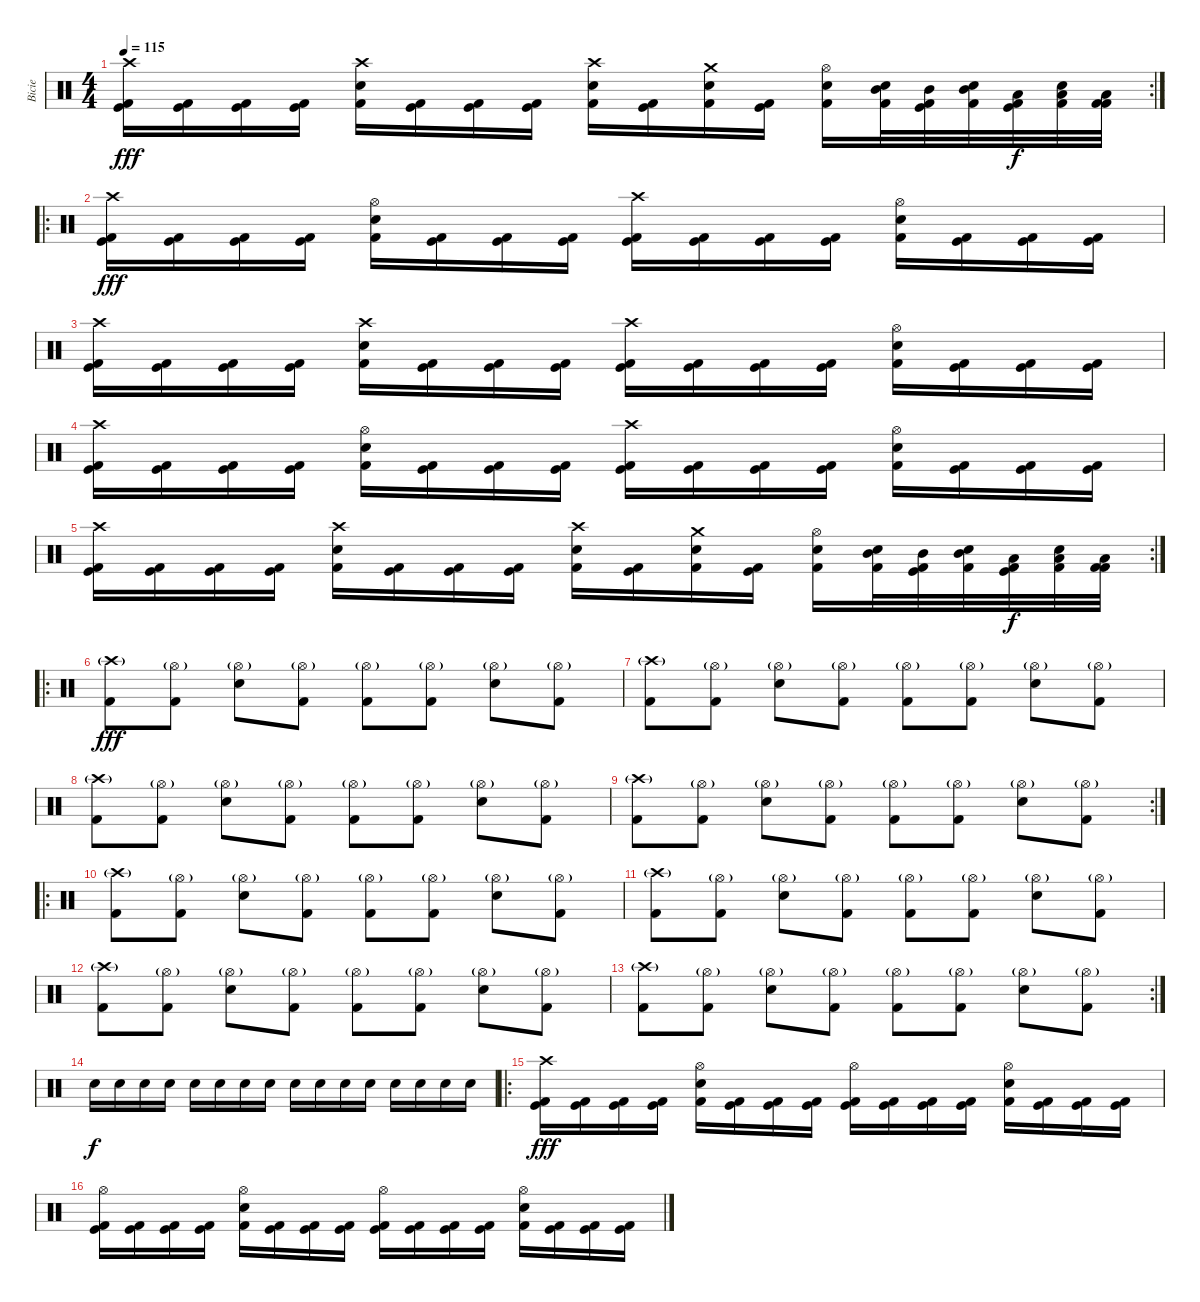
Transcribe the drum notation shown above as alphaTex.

\track ("Bicie" "Bicie") {instrument percussion}
\staff {score}
\articulation defaults
\rc 2
\ts (4 4)
\tempo 115
\clef neutral
\ks c
("Crash high (hit)" "Kick (hit)" "Kick (hit) 2").16{dy fff} ("Kick (hit)" "Kick (hit) 2").16 ("Kick (hit)" "Kick (hit) 2").16 ("Kick (hit)" "Kick (hit) 2").16 ("Crash high (hit)" "Electric Snare (hit)" "Kick (hit) 2").16 ("Kick (hit)" "Kick (hit) 2").16 ("Kick (hit)" "Kick (hit) 2").16 ("Kick (hit)" "Kick (hit) 2").16 ("Crash high (hit)" "Electric Snare (hit)" "Kick (hit) 2").16 ("Kick (hit)" "Kick (hit) 2").16 ("Crash medium (hit)" "Electric Snare (hit)" "Kick (hit) 2").16 ("Kick (hit)" "Kick (hit) 2").16 ("Hi-Hat (open)" "Electric Snare (hit)" "Kick (hit) 2").16 ("Mid Tom (hit)" "Electric Snare (hit)" "Kick (hit) 2").32 ("Mid Tom (hit)" "Kick (hit)" "Kick (hit) 2").32 ("Mid Tom (hit)" "Electric Snare (hit)" "Kick (hit) 2").32 ("Low Tom (hit)" "Kick (hit)" "Kick (hit) 2").32{dy f} ("Low Tom (hit)" "Electric Snare (hit)" "Kick (hit) 2").32 ("Low Tom (hit)" "Kick (hit) 2" "Kick (hit) 2").32 |
\ro
("Crash high (hit)" "Kick (hit)" "Kick (hit) 2").16{dy fff} ("Kick (hit)" "Kick (hit) 2").16 ("Kick (hit)" "Kick (hit) 2").16 ("Kick (hit)" "Kick (hit) 2").16 ("Hi-Hat (open)" "Electric Snare (hit)" "Kick (hit) 2").16 ("Kick (hit)" "Kick (hit) 2").16 ("Kick (hit)" "Kick (hit) 2").16 ("Kick (hit)" "Kick (hit) 2").16 ("Crash high (hit)" "Kick (hit)" "Kick (hit) 2").16 ("Kick (hit)" "Kick (hit) 2").16 ("Kick (hit)" "Kick (hit) 2").16 ("Kick (hit)" "Kick (hit) 2").16 ("Hi-Hat (open)" "Electric Snare (hit)" "Kick (hit) 2").16 ("Kick (hit)" "Kick (hit) 2").16 ("Kick (hit)" "Kick (hit) 2").16 ("Kick (hit)" "Kick (hit) 2").16 |
("Crash high (hit)" "Kick (hit)" "Kick (hit) 2").16 ("Kick (hit)" "Kick (hit) 2").16 ("Kick (hit)" "Kick (hit) 2").16 ("Kick (hit)" "Kick (hit) 2").16 ("Crash high (hit)" "Electric Snare (hit)" "Kick (hit) 2").16 ("Kick (hit)" "Kick (hit) 2").16 ("Kick (hit)" "Kick (hit) 2").16 ("Kick (hit)" "Kick (hit) 2").16 ("Crash high (hit)" "Kick (hit)" "Kick (hit) 2").16 ("Kick (hit)" "Kick (hit) 2").16 ("Kick (hit)" "Kick (hit) 2").16 ("Kick (hit)" "Kick (hit) 2").16 ("Hi-Hat (open)" "Electric Snare (hit)" "Kick (hit) 2").16 ("Kick (hit)" "Kick (hit) 2").16 ("Kick (hit)" "Kick (hit) 2").16 ("Kick (hit)" "Kick (hit) 2").16 |
("Crash high (hit)" "Kick (hit)" "Kick (hit) 2").16 ("Kick (hit)" "Kick (hit) 2").16 ("Kick (hit)" "Kick (hit) 2").16 ("Kick (hit)" "Kick (hit) 2").16 ("Hi-Hat (open)" "Electric Snare (hit)" "Kick (hit) 2").16 ("Kick (hit)" "Kick (hit) 2").16 ("Kick (hit)" "Kick (hit) 2").16 ("Kick (hit)" "Kick (hit) 2").16 ("Crash high (hit)" "Kick (hit)" "Kick (hit) 2").16 ("Kick (hit)" "Kick (hit) 2").16 ("Kick (hit)" "Kick (hit) 2").16 ("Kick (hit)" "Kick (hit) 2").16 ("Hi-Hat (open)" "Electric Snare (hit)" "Kick (hit) 2").16 ("Kick (hit)" "Kick (hit) 2").16 ("Kick (hit)" "Kick (hit) 2").16 ("Kick (hit)" "Kick (hit) 2").16 |
\rc 2
("Crash high (hit)" "Kick (hit)" "Kick (hit) 2").16 ("Kick (hit)" "Kick (hit) 2").16 ("Kick (hit)" "Kick (hit) 2").16 ("Kick (hit)" "Kick (hit) 2").16 ("Crash high (hit)" "Electric Snare (hit)" "Kick (hit) 2").16 ("Kick (hit)" "Kick (hit) 2").16 ("Kick (hit)" "Kick (hit) 2").16 ("Kick (hit)" "Kick (hit) 2").16 ("Crash high (hit)" "Electric Snare (hit)" "Kick (hit) 2").16 ("Kick (hit)" "Kick (hit) 2").16 ("Crash medium (hit)" "Electric Snare (hit)" "Kick (hit) 2").16 ("Kick (hit)" "Kick (hit) 2").16 ("Hi-Hat (open)" "Electric Snare (hit)" "Kick (hit) 2").16 ("Mid Tom (hit)" "Electric Snare (hit)" "Kick (hit) 2").32 ("Mid Tom (hit)" "Kick (hit)" "Kick (hit) 2").32 ("Mid Tom (hit)" "Electric Snare (hit)" "Kick (hit) 2").32 ("Low Tom (hit)" "Kick (hit)" "Kick (hit) 2").32{dy f} ("Low Tom (hit)" "Electric Snare (hit)" "Kick (hit) 2").32 ("Low Tom (hit)" "Kick (hit) 2" "Kick (hit) 2").32 |
\ro
("Crash high (hit)"{g} "Kick (hit) 2").8{dy fff} ("Hi-Hat (open)"{g} "Kick (hit) 2").8 ("Hi-Hat (open)"{g} "Snare (hit) 2").8 ("Hi-Hat (open)"{g} "Kick (hit) 2").8 ("Hi-Hat (open)"{g} "Kick (hit) 2").8 ("Hi-Hat (open)"{g} "Kick (hit) 2").8 ("Hi-Hat (open)"{g} "Snare (hit) 2").8 ("Hi-Hat (open)"{g} "Kick (hit) 2").8 |
("Crash high (hit)"{g} "Kick (hit) 2").8 ("Hi-Hat (open)"{g} "Kick (hit) 2").8 ("Hi-Hat (open)"{g} "Snare (hit) 2").8 ("Hi-Hat (open)"{g} "Kick (hit) 2").8 ("Hi-Hat (open)"{g} "Kick (hit) 2").8 ("Hi-Hat (open)"{g} "Kick (hit) 2").8 ("Hi-Hat (open)"{g} "Snare (hit) 2").8 ("Hi-Hat (open)"{g} "Kick (hit) 2").8 |
("Crash high (hit)"{g} "Kick (hit) 2").8 ("Hi-Hat (open)"{g} "Kick (hit) 2").8 ("Hi-Hat (open)"{g} "Snare (hit) 2").8 ("Hi-Hat (open)"{g} "Kick (hit) 2").8 ("Hi-Hat (open)"{g} "Kick (hit) 2").8 ("Hi-Hat (open)"{g} "Kick (hit) 2").8 ("Hi-Hat (open)"{g} "Snare (hit) 2").8 ("Hi-Hat (open)"{g} "Kick (hit) 2").8 |
\rc 2
("Crash high (hit)"{g} "Kick (hit) 2").8 ("Hi-Hat (open)"{g} "Kick (hit) 2").8 ("Hi-Hat (open)"{g} "Snare (hit) 2").8 ("Hi-Hat (open)"{g} "Kick (hit) 2").8 ("Hi-Hat (open)"{g} "Kick (hit) 2").8 ("Hi-Hat (open)"{g} "Kick (hit) 2").8 ("Hi-Hat (open)"{g} "Snare (hit) 2").8 ("Hi-Hat (open)"{g} "Kick (hit) 2").8 |
\ro
("Crash high (hit)"{g} "Kick (hit) 2").8 ("Hi-Hat (open)"{g} "Kick (hit) 2").8 ("Hi-Hat (open)"{g} "Snare (hit) 2").8 ("Hi-Hat (open)"{g} "Kick (hit) 2").8 ("Hi-Hat (open)"{g} "Kick (hit) 2").8 ("Hi-Hat (open)"{g} "Kick (hit) 2").8 ("Hi-Hat (open)"{g} "Snare (hit) 2").8 ("Hi-Hat (open)"{g} "Kick (hit) 2").8 |
("Crash high (hit)"{g} "Kick (hit) 2").8 ("Hi-Hat (open)"{g} "Kick (hit) 2").8 ("Hi-Hat (open)"{g} "Snare (hit) 2").8 ("Hi-Hat (open)"{g} "Kick (hit) 2").8 ("Hi-Hat (open)"{g} "Kick (hit) 2").8 ("Hi-Hat (open)"{g} "Kick (hit) 2").8 ("Hi-Hat (open)"{g} "Snare (hit) 2").8 ("Hi-Hat (open)"{g} "Kick (hit) 2").8 |
("Crash high (hit)"{g} "Kick (hit) 2").8 ("Hi-Hat (open)"{g} "Kick (hit) 2").8 ("Hi-Hat (open)"{g} "Snare (hit) 2").8 ("Hi-Hat (open)"{g} "Kick (hit) 2").8 ("Hi-Hat (open)"{g} "Kick (hit) 2").8 ("Hi-Hat (open)"{g} "Kick (hit) 2").8 ("Hi-Hat (open)"{g} "Snare (hit) 2").8 ("Hi-Hat (open)"{g} "Kick (hit) 2").8 |
\rc 2
("Crash high (hit)"{g} "Kick (hit) 2").8 ("Hi-Hat (open)"{g} "Kick (hit) 2").8 ("Hi-Hat (open)"{g} "Snare (hit) 2").8 ("Hi-Hat (open)"{g} "Kick (hit) 2").8 ("Hi-Hat (open)"{g} "Kick (hit) 2").8 ("Hi-Hat (open)"{g} "Kick (hit) 2").8 ("Hi-Hat (open)"{g} "Snare (hit) 2").8 ("Hi-Hat (open)"{g} "Kick (hit) 2").8 |
"Electric Snare (hit)".16{dy f} "Electric Snare (hit)".16 "Electric Snare (hit)".16 "Electric Snare (hit)".16 "Electric Snare (hit)".16 "Electric Snare (hit)".16 "Electric Snare (hit)".16 "Electric Snare (hit)".16 "Electric Snare (hit)".16 "Electric Snare (hit)".16 "Electric Snare (hit)".16 "Electric Snare (hit)".16 "Electric Snare (hit)".16 "Electric Snare (hit)".16 "Electric Snare (hit)".16 "Electric Snare (hit)".16 |
\ro
("Crash high (hit)" "Kick (hit)" "Kick (hit) 2").16{dy fff} ("Kick (hit)" "Kick (hit) 2").16 ("Kick (hit)" "Kick (hit) 2").16 ("Kick (hit)" "Kick (hit) 2").16 ("Hi-Hat (open)" "Electric Snare (hit)" "Kick (hit) 2").16 ("Kick (hit)" "Kick (hit) 2").16 ("Kick (hit)" "Kick (hit) 2").16 ("Kick (hit)" "Kick (hit) 2").16 ("Hi-Hat (open)" "Kick (hit)" "Kick (hit) 2").16 ("Kick (hit)" "Kick (hit) 2").16 ("Kick (hit)" "Kick (hit) 2").16 ("Kick (hit)" "Kick (hit) 2").16 ("Hi-Hat (open)" "Electric Snare (hit)" "Kick (hit) 2").16 ("Kick (hit)" "Kick (hit) 2").16 ("Kick (hit)" "Kick (hit) 2").16 ("Kick (hit)" "Kick (hit) 2").16 |
("Hi-Hat (open)" "Kick (hit)" "Kick (hit) 2").16 ("Kick (hit)" "Kick (hit) 2").16 ("Kick (hit)" "Kick (hit) 2").16 ("Kick (hit)" "Kick (hit) 2").16 ("Hi-Hat (open)" "Electric Snare (hit)" "Kick (hit) 2").16 ("Kick (hit)" "Kick (hit) 2").16 ("Kick (hit)" "Kick (hit) 2").16 ("Kick (hit)" "Kick (hit) 2").16 ("Hi-Hat (open)" "Kick (hit)" "Kick (hit) 2").16 ("Kick (hit)" "Kick (hit) 2").16 ("Kick (hit)" "Kick (hit) 2").16 ("Kick (hit)" "Kick (hit) 2").16 ("Hi-Hat (open)" "Electric Snare (hit)" "Kick (hit) 2").16 ("Kick (hit)" "Kick (hit) 2").16 ("Kick (hit)" "Kick (hit) 2").16 ("Kick (hit)" "Kick (hit) 2").16
